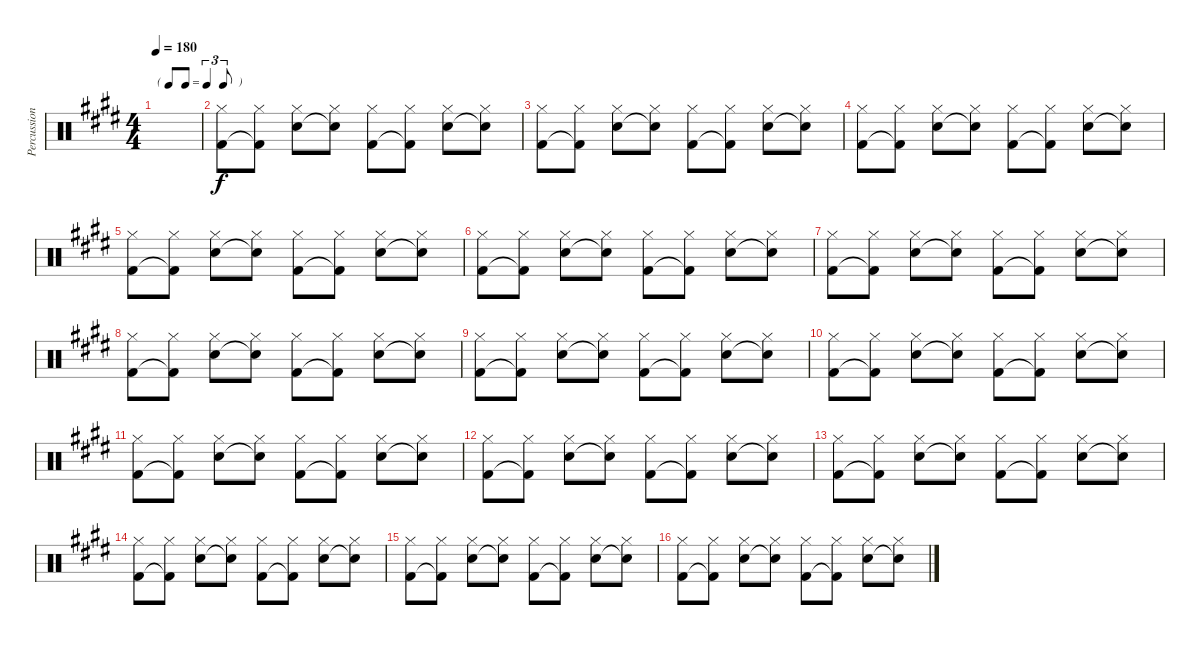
\track ("Percussion" "Percussion") {instrument percussion}
\staff {score}
\articulation defaults
\ts (4 4)
\tf triplet8th
\tempo 180
\clef neutral
\ks e
|
("Hi-Hat (closed)" "Kick (hit) 2").8 ("Hi-Hat (closed)" "Kick (hit) 2"{t}).8 ("Hi-Hat (closed)" "Snare (hit) 2").8 ("Hi-Hat (closed)" "Snare (hit) 2"{t}).8 ("Hi-Hat (closed)" "Kick (hit) 2").8 ("Hi-Hat (closed)" "Kick (hit) 2"{t}).8 ("Hi-Hat (closed)" "Snare (hit) 2").8 ("Hi-Hat (closed)" "Snare (hit) 2"{t}).8 |
("Hi-Hat (closed)" "Kick (hit) 2").8 ("Hi-Hat (closed)" "Kick (hit) 2"{t}).8 ("Hi-Hat (closed)" "Snare (hit) 2").8 ("Hi-Hat (closed)" "Snare (hit) 2"{t}).8 ("Hi-Hat (closed)" "Kick (hit) 2").8 ("Hi-Hat (closed)" "Kick (hit) 2"{t}).8 ("Hi-Hat (closed)" "Snare (hit) 2").8 ("Hi-Hat (closed)" "Snare (hit) 2"{t}).8 |
("Hi-Hat (closed)" "Kick (hit) 2").8 ("Hi-Hat (closed)" "Kick (hit) 2"{t}).8 ("Hi-Hat (closed)" "Snare (hit) 2").8 ("Hi-Hat (closed)" "Snare (hit) 2"{t}).8 ("Hi-Hat (closed)" "Kick (hit) 2").8 ("Hi-Hat (closed)" "Kick (hit) 2"{t}).8 ("Hi-Hat (closed)" "Snare (hit) 2").8 ("Hi-Hat (closed)" "Snare (hit) 2"{t}).8 |
("Hi-Hat (closed)" "Kick (hit) 2").8 ("Hi-Hat (closed)" "Kick (hit) 2"{t}).8 ("Hi-Hat (closed)" "Snare (hit) 2").8 ("Hi-Hat (closed)" "Snare (hit) 2"{t}).8 ("Hi-Hat (closed)" "Kick (hit) 2").8 ("Hi-Hat (closed)" "Kick (hit) 2"{t}).8 ("Hi-Hat (closed)" "Snare (hit) 2").8 ("Hi-Hat (closed)" "Snare (hit) 2"{t}).8 |
("Hi-Hat (closed)" "Kick (hit) 2").8 ("Hi-Hat (closed)" "Kick (hit) 2"{t}).8 ("Hi-Hat (closed)" "Snare (hit) 2").8 ("Hi-Hat (closed)" "Snare (hit) 2"{t}).8 ("Hi-Hat (closed)" "Kick (hit) 2").8 ("Hi-Hat (closed)" "Kick (hit) 2"{t}).8 ("Hi-Hat (closed)" "Snare (hit) 2").8 ("Hi-Hat (closed)" "Snare (hit) 2"{t}).8 |
("Hi-Hat (closed)" "Kick (hit) 2").8 ("Hi-Hat (closed)" "Kick (hit) 2"{t}).8 ("Hi-Hat (closed)" "Snare (hit) 2").8 ("Hi-Hat (closed)" "Snare (hit) 2"{t}).8 ("Hi-Hat (closed)" "Kick (hit) 2").8 ("Hi-Hat (closed)" "Kick (hit) 2"{t}).8 ("Hi-Hat (closed)" "Snare (hit) 2").8 ("Hi-Hat (closed)" "Snare (hit) 2"{t}).8 |
("Hi-Hat (closed)" "Kick (hit) 2").8 ("Hi-Hat (closed)" "Kick (hit) 2"{t}).8 ("Hi-Hat (closed)" "Snare (hit) 2").8 ("Hi-Hat (closed)" "Snare (hit) 2"{t}).8 ("Hi-Hat (closed)" "Kick (hit) 2").8 ("Hi-Hat (closed)" "Kick (hit) 2"{t}).8 ("Hi-Hat (closed)" "Snare (hit) 2").8 ("Hi-Hat (closed)" "Snare (hit) 2"{t}).8 |
("Hi-Hat (closed)" "Kick (hit) 2").8 ("Hi-Hat (closed)" "Kick (hit) 2"{t}).8 ("Hi-Hat (closed)" "Snare (hit) 2").8 ("Hi-Hat (closed)" "Snare (hit) 2"{t}).8 ("Hi-Hat (closed)" "Kick (hit) 2").8 ("Hi-Hat (closed)" "Kick (hit) 2"{t}).8 ("Hi-Hat (closed)" "Snare (hit) 2").8 ("Hi-Hat (closed)" "Snare (hit) 2"{t}).8 |
("Hi-Hat (closed)" "Kick (hit) 2").8 ("Hi-Hat (closed)" "Kick (hit) 2"{t}).8 ("Hi-Hat (closed)" "Snare (hit) 2").8 ("Hi-Hat (closed)" "Snare (hit) 2"{t}).8 ("Hi-Hat (closed)" "Kick (hit) 2").8 ("Hi-Hat (closed)" "Kick (hit) 2"{t}).8 ("Hi-Hat (closed)" "Snare (hit) 2").8 ("Hi-Hat (closed)" "Snare (hit) 2"{t}).8 |
("Hi-Hat (closed)" "Kick (hit) 2").8 ("Hi-Hat (closed)" "Kick (hit) 2"{t}).8 ("Hi-Hat (closed)" "Snare (hit) 2").8 ("Hi-Hat (closed)" "Snare (hit) 2"{t}).8 ("Hi-Hat (closed)" "Kick (hit) 2").8 ("Hi-Hat (closed)" "Kick (hit) 2"{t}).8 ("Hi-Hat (closed)" "Snare (hit) 2").8 ("Hi-Hat (closed)" "Snare (hit) 2"{t}).8 |
("Hi-Hat (closed)" "Kick (hit) 2").8 ("Hi-Hat (closed)" "Kick (hit) 2"{t}).8 ("Hi-Hat (closed)" "Snare (hit) 2").8 ("Hi-Hat (closed)" "Snare (hit) 2"{t}).8 ("Hi-Hat (closed)" "Kick (hit) 2").8 ("Hi-Hat (closed)" "Kick (hit) 2"{t}).8 ("Hi-Hat (closed)" "Snare (hit) 2").8 ("Hi-Hat (closed)" "Snare (hit) 2"{t}).8 |
("Hi-Hat (closed)" "Kick (hit) 2").8 ("Hi-Hat (closed)" "Kick (hit) 2"{t}).8 ("Hi-Hat (closed)" "Snare (hit) 2").8 ("Hi-Hat (closed)" "Snare (hit) 2"{t}).8 ("Hi-Hat (closed)" "Kick (hit) 2").8 ("Hi-Hat (closed)" "Kick (hit) 2"{t}).8 ("Hi-Hat (closed)" "Snare (hit) 2").8 ("Hi-Hat (closed)" "Snare (hit) 2"{t}).8 |
("Hi-Hat (closed)" "Kick (hit) 2").8 ("Hi-Hat (closed)" "Kick (hit) 2"{t}).8 ("Hi-Hat (closed)" "Snare (hit) 2").8 ("Hi-Hat (closed)" "Snare (hit) 2"{t}).8 ("Hi-Hat (closed)" "Kick (hit) 2").8 ("Hi-Hat (closed)" "Kick (hit) 2"{t}).8 ("Hi-Hat (closed)" "Snare (hit) 2").8 ("Hi-Hat (closed)" "Snare (hit) 2"{t}).8 |
("Hi-Hat (closed)" "Kick (hit) 2").8 ("Hi-Hat (closed)" "Kick (hit) 2"{t}).8 ("Hi-Hat (closed)" "Snare (hit) 2").8 ("Hi-Hat (closed)" "Snare (hit) 2"{t}).8 ("Hi-Hat (closed)" "Kick (hit) 2").8 ("Hi-Hat (closed)" "Kick (hit) 2"{t}).8 ("Hi-Hat (closed)" "Snare (hit) 2").8 ("Hi-Hat (closed)" "Snare (hit) 2"{t}).8 |
("Hi-Hat (closed)" "Kick (hit) 2").8 ("Hi-Hat (closed)" "Kick (hit) 2"{t}).8 ("Hi-Hat (closed)" "Snare (hit) 2").8 ("Hi-Hat (closed)" "Snare (hit) 2"{t}).8 ("Hi-Hat (closed)" "Kick (hit) 2").8 ("Hi-Hat (closed)" "Kick (hit) 2"{t}).8 ("Hi-Hat (closed)" "Snare (hit) 2").8 ("Hi-Hat (closed)" "Snare (hit) 2"{t}).8
